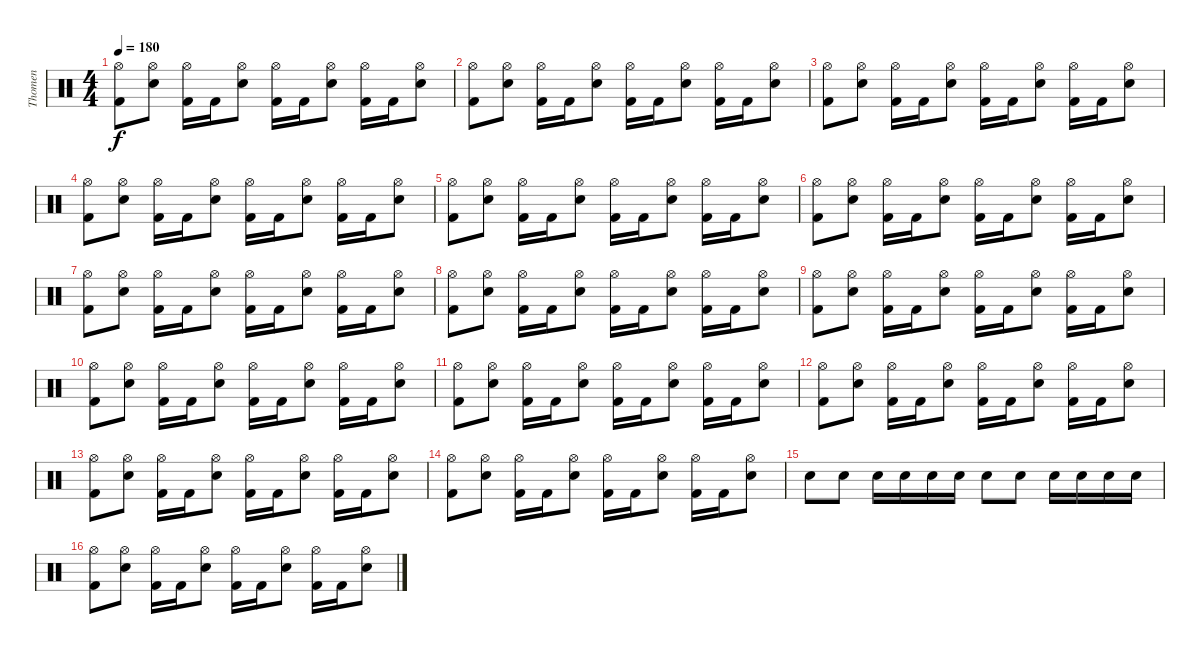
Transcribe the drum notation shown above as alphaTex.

\track ("Thomen" "Thomen") {instrument percussion}
\staff {score}
\articulation defaults
\ts (4 4)
\tempo 180
\clef neutral
\ks c
("Hi-Hat (open)" "Kick (hit) 2").8{dy f} ("Hi-Hat (open)" "Electric Snare (hit)").8 ("Hi-Hat (open)" "Kick (hit) 2").16 "Kick (hit) 2".16 ("Hi-Hat (open)" "Electric Snare (hit)").8 ("Hi-Hat (open)" "Kick (hit) 2").16 "Kick (hit) 2".16 ("Hi-Hat (open)" "Electric Snare (hit)").8 ("Hi-Hat (open)" "Kick (hit) 2").16 "Kick (hit) 2".16 ("Hi-Hat (open)" "Electric Snare (hit)").8 |
("Hi-Hat (open)" "Kick (hit) 2").8 ("Hi-Hat (open)" "Electric Snare (hit)").8 ("Hi-Hat (open)" "Kick (hit) 2").16 "Kick (hit) 2".16 ("Hi-Hat (open)" "Electric Snare (hit)").8 ("Hi-Hat (open)" "Kick (hit) 2").16 "Kick (hit) 2".16 ("Hi-Hat (open)" "Electric Snare (hit)").8 ("Hi-Hat (open)" "Kick (hit) 2").16 "Kick (hit) 2".16 ("Hi-Hat (open)" "Electric Snare (hit)").8 |
("Hi-Hat (open)" "Kick (hit) 2").8 ("Hi-Hat (open)" "Electric Snare (hit)").8 ("Hi-Hat (open)" "Kick (hit) 2").16 "Kick (hit) 2".16 ("Hi-Hat (open)" "Electric Snare (hit)").8 ("Hi-Hat (open)" "Kick (hit) 2").16 "Kick (hit) 2".16 ("Hi-Hat (open)" "Electric Snare (hit)").8 ("Hi-Hat (open)" "Kick (hit) 2").16 "Kick (hit) 2".16 ("Hi-Hat (open)" "Electric Snare (hit)").8 |
("Hi-Hat (open)" "Kick (hit) 2").8 ("Hi-Hat (open)" "Electric Snare (hit)").8 ("Hi-Hat (open)" "Kick (hit) 2").16 "Kick (hit) 2".16 ("Hi-Hat (open)" "Electric Snare (hit)").8 ("Hi-Hat (open)" "Kick (hit) 2").16 "Kick (hit) 2".16 ("Hi-Hat (open)" "Electric Snare (hit)").8 ("Hi-Hat (open)" "Kick (hit) 2").16 "Kick (hit) 2".16 ("Hi-Hat (open)" "Electric Snare (hit)").8 |
("Hi-Hat (open)" "Kick (hit) 2").8 ("Hi-Hat (open)" "Electric Snare (hit)").8 ("Hi-Hat (open)" "Kick (hit) 2").16 "Kick (hit) 2".16 ("Hi-Hat (open)" "Electric Snare (hit)").8 ("Hi-Hat (open)" "Kick (hit) 2").16 "Kick (hit) 2".16 ("Hi-Hat (open)" "Electric Snare (hit)").8 ("Hi-Hat (open)" "Kick (hit) 2").16 "Kick (hit) 2".16 ("Hi-Hat (open)" "Electric Snare (hit)").8 |
("Hi-Hat (open)" "Kick (hit) 2").8 ("Hi-Hat (open)" "Electric Snare (hit)").8 ("Hi-Hat (open)" "Kick (hit) 2").16 "Kick (hit) 2".16 ("Hi-Hat (open)" "Electric Snare (hit)").8 ("Hi-Hat (open)" "Kick (hit) 2").16 "Kick (hit) 2".16 ("Hi-Hat (open)" "Electric Snare (hit)").8 ("Hi-Hat (open)" "Kick (hit) 2").16 "Kick (hit) 2".16 ("Hi-Hat (open)" "Electric Snare (hit)").8 |
("Hi-Hat (open)" "Kick (hit) 2").8 ("Hi-Hat (open)" "Electric Snare (hit)").8 ("Hi-Hat (open)" "Kick (hit) 2").16 "Kick (hit) 2".16 ("Hi-Hat (open)" "Electric Snare (hit)").8 ("Hi-Hat (open)" "Kick (hit) 2").16 "Kick (hit) 2".16 ("Hi-Hat (open)" "Electric Snare (hit)").8 ("Hi-Hat (open)" "Kick (hit) 2").16 "Kick (hit) 2".16 ("Hi-Hat (open)" "Electric Snare (hit)").8 |
("Hi-Hat (open)" "Kick (hit) 2").8 ("Hi-Hat (open)" "Electric Snare (hit)").8 ("Hi-Hat (open)" "Kick (hit) 2").16 "Kick (hit) 2".16 ("Hi-Hat (open)" "Electric Snare (hit)").8 ("Hi-Hat (open)" "Kick (hit) 2").16 "Kick (hit) 2".16 ("Hi-Hat (open)" "Electric Snare (hit)").8 ("Hi-Hat (open)" "Kick (hit) 2").16 "Kick (hit) 2".16 ("Hi-Hat (open)" "Electric Snare (hit)").8 |
("Hi-Hat (open)" "Kick (hit) 2").8 ("Hi-Hat (open)" "Electric Snare (hit)").8 ("Hi-Hat (open)" "Kick (hit) 2").16 "Kick (hit) 2".16 ("Hi-Hat (open)" "Electric Snare (hit)").8 ("Hi-Hat (open)" "Kick (hit) 2").16 "Kick (hit) 2".16 ("Hi-Hat (open)" "Electric Snare (hit)").8 ("Hi-Hat (open)" "Kick (hit) 2").16 "Kick (hit) 2".16 ("Hi-Hat (open)" "Electric Snare (hit)").8 |
("Hi-Hat (open)" "Kick (hit) 2").8 ("Hi-Hat (open)" "Electric Snare (hit)").8 ("Hi-Hat (open)" "Kick (hit) 2").16 "Kick (hit) 2".16 ("Hi-Hat (open)" "Electric Snare (hit)").8 ("Hi-Hat (open)" "Kick (hit) 2").16 "Kick (hit) 2".16 ("Hi-Hat (open)" "Electric Snare (hit)").8 ("Hi-Hat (open)" "Kick (hit) 2").16 "Kick (hit) 2".16 ("Hi-Hat (open)" "Electric Snare (hit)").8 |
("Hi-Hat (open)" "Kick (hit) 2").8 ("Hi-Hat (open)" "Electric Snare (hit)").8 ("Hi-Hat (open)" "Kick (hit) 2").16 "Kick (hit) 2".16 ("Hi-Hat (open)" "Electric Snare (hit)").8 ("Hi-Hat (open)" "Kick (hit) 2").16 "Kick (hit) 2".16 ("Hi-Hat (open)" "Electric Snare (hit)").8 ("Hi-Hat (open)" "Kick (hit) 2").16 "Kick (hit) 2".16 ("Hi-Hat (open)" "Electric Snare (hit)").8 |
("Hi-Hat (open)" "Kick (hit) 2").8 ("Hi-Hat (open)" "Electric Snare (hit)").8 ("Hi-Hat (open)" "Kick (hit) 2").16 "Kick (hit) 2".16 ("Hi-Hat (open)" "Electric Snare (hit)").8 ("Hi-Hat (open)" "Kick (hit) 2").16 "Kick (hit) 2".16 ("Hi-Hat (open)" "Electric Snare (hit)").8 ("Hi-Hat (open)" "Kick (hit) 2").16 "Kick (hit) 2".16 ("Hi-Hat (open)" "Electric Snare (hit)").8 |
("Hi-Hat (open)" "Kick (hit) 2").8 ("Hi-Hat (open)" "Electric Snare (hit)").8 ("Hi-Hat (open)" "Kick (hit) 2").16 "Kick (hit) 2".16 ("Hi-Hat (open)" "Electric Snare (hit)").8 ("Hi-Hat (open)" "Kick (hit) 2").16 "Kick (hit) 2".16 ("Hi-Hat (open)" "Electric Snare (hit)").8 ("Hi-Hat (open)" "Kick (hit) 2").16 "Kick (hit) 2".16 ("Hi-Hat (open)" "Electric Snare (hit)").8 |
("Hi-Hat (open)" "Kick (hit) 2").8 ("Hi-Hat (open)" "Electric Snare (hit)").8 ("Hi-Hat (open)" "Kick (hit) 2").16 "Kick (hit) 2".16 ("Hi-Hat (open)" "Electric Snare (hit)").8 ("Hi-Hat (open)" "Kick (hit) 2").16 "Kick (hit) 2".16 ("Hi-Hat (open)" "Electric Snare (hit)").8 ("Hi-Hat (open)" "Kick (hit) 2").16 "Kick (hit) 2".16 ("Hi-Hat (open)" "Electric Snare (hit)").8 |
"Electric Snare (hit)".8 "Electric Snare (hit)".8 "Electric Snare (hit)".16 "Electric Snare (hit)".16 "Electric Snare (hit)".16 "Electric Snare (hit)".16 "Electric Snare (hit)".8 "Electric Snare (hit)".8 "Electric Snare (hit)".16 "Electric Snare (hit)".16 "Electric Snare (hit)".16 "Electric Snare (hit)".16 |
("Hi-Hat (open)" "Kick (hit) 2").8 ("Hi-Hat (open)" "Electric Snare (hit)").8 ("Hi-Hat (open)" "Kick (hit) 2").16 "Kick (hit) 2".16 ("Hi-Hat (open)" "Electric Snare (hit)").8 ("Hi-Hat (open)" "Kick (hit) 2").16 "Kick (hit) 2".16 ("Hi-Hat (open)" "Electric Snare (hit)").8 ("Hi-Hat (open)" "Kick (hit) 2").16 "Kick (hit) 2".16 ("Hi-Hat (open)" "Electric Snare (hit)").8
